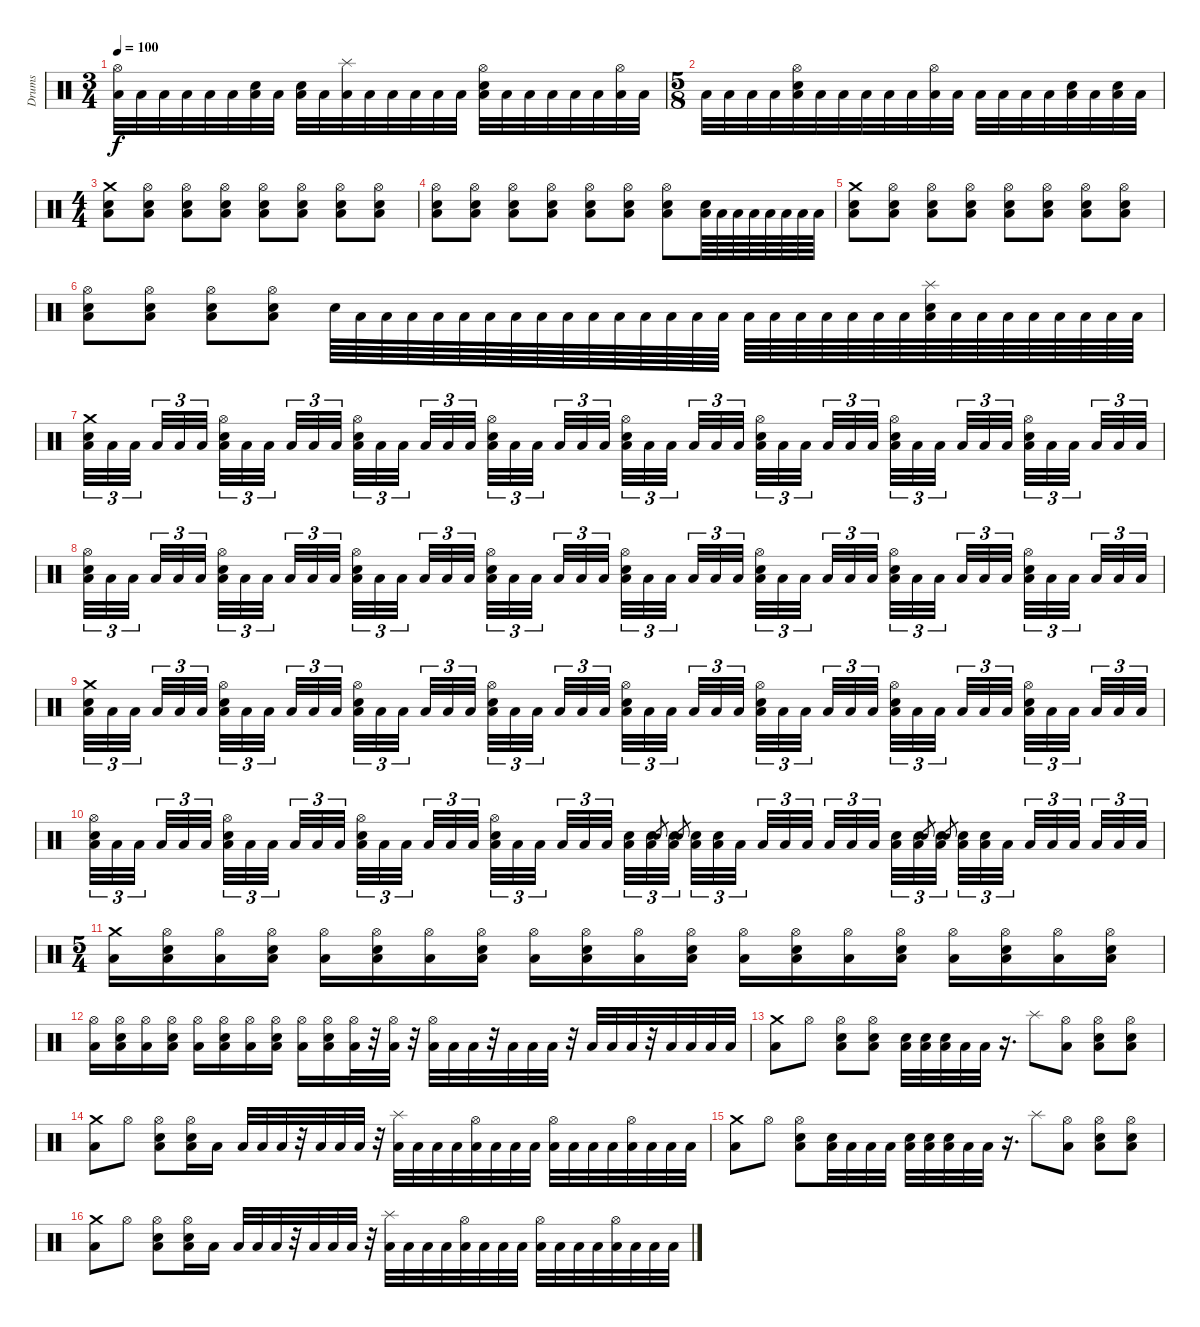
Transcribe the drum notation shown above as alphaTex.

\track ("Drums" "Drums") {instrument percussion}
\staff {score}
\articulation defaults
\ts (3 4)
\tempo 100
\clef neutral
\ks c
("Hi-Hat (open)" "Low Floor Tom (hit)").32{dy f} "Low Floor Tom (hit)".32 "Low Floor Tom (hit)".32 "Low Floor Tom (hit)".32 "Low Floor Tom (hit)".32 "Low Floor Tom (hit)".32 ("Electric Snare (hit)" "Low Floor Tom (hit)").32 "Low Floor Tom (hit)".32 ("Electric Snare (hit)" "Low Floor Tom (hit)").32 "Low Floor Tom (hit)".32 ("Splash (hit)" "Low Floor Tom (hit)").32 "Low Floor Tom (hit)".32 "Low Floor Tom (hit)".32 "Low Floor Tom (hit)".32 "Low Floor Tom (hit)".32 "Low Floor Tom (hit)".32 ("Hi-Hat (open)" "Electric Snare (hit)" "Low Floor Tom (hit)").32 "Low Floor Tom (hit)".32 "Low Floor Tom (hit)".32 "Low Floor Tom (hit)".32 "Low Floor Tom (hit)".32 "Low Floor Tom (hit)".32 ("Hi-Hat (open)" "Low Floor Tom (hit)").32 "Low Floor Tom (hit)".32 |
\ts (5 8)
"Low Floor Tom (hit)".32 "Low Floor Tom (hit)".32 "Low Floor Tom (hit)".32 "Low Floor Tom (hit)".32 ("Hi-Hat (open)" "Electric Snare (hit)" "Low Floor Tom (hit)").32 "Low Floor Tom (hit)".32 "Low Floor Tom (hit)".32 "Low Floor Tom (hit)".32 "Low Floor Tom (hit)".32 "Low Floor Tom (hit)".32 ("Hi-Hat (open)" "Low Floor Tom (hit)").32 "Low Floor Tom (hit)".32 "Low Floor Tom (hit)".32 "Low Floor Tom (hit)".32 "Low Floor Tom (hit)".32 "Low Floor Tom (hit)".32 ("Electric Snare (hit)" "Low Floor Tom (hit)").32 "Low Floor Tom (hit)".32 ("Electric Snare (hit)" "Low Floor Tom (hit)").32 "Low Floor Tom (hit)".32 |
\ts (4 4)
("Crash medium (hit)" "Electric Snare (hit)" "Low Floor Tom (hit)").8 ("Hi-Hat (open)" "Electric Snare (hit)" "Low Floor Tom (hit)").8 ("Hi-Hat (open)" "Electric Snare (hit)" "Low Floor Tom (hit)").8 ("Hi-Hat (open)" "Electric Snare (hit)" "Low Floor Tom (hit)").8 ("Hi-Hat (open)" "Electric Snare (hit)" "Low Floor Tom (hit)").8 ("Hi-Hat (open)" "Electric Snare (hit)" "Low Floor Tom (hit)").8 ("Hi-Hat (open)" "Electric Snare (hit)" "Low Floor Tom (hit)").8 ("Hi-Hat (open)" "Electric Snare (hit)" "Low Floor Tom (hit)").8 |
("Hi-Hat (open)" "Electric Snare (hit)" "Low Floor Tom (hit)").8 ("Hi-Hat (open)" "Electric Snare (hit)" "Low Floor Tom (hit)").8 ("Hi-Hat (open)" "Electric Snare (hit)" "Low Floor Tom (hit)").8 ("Hi-Hat (open)" "Electric Snare (hit)" "Low Floor Tom (hit)").8 ("Hi-Hat (open)" "Electric Snare (hit)" "Low Floor Tom (hit)").8 ("Hi-Hat (open)" "Electric Snare (hit)" "Low Floor Tom (hit)").8 ("Hi-Hat (open)" "Electric Snare (hit)" "Low Floor Tom (hit)").8 ("Electric Snare (hit)" "Low Floor Tom (hit)").64 "Low Floor Tom (hit)".64 "Low Floor Tom (hit)".64 "Low Floor Tom (hit)".64 "Low Floor Tom (hit)".64 "Low Floor Tom (hit)".64 "Low Floor Tom (hit)".64 "Low Floor Tom (hit)".64 |
("Crash medium (hit)" "Electric Snare (hit)" "Low Floor Tom (hit)").8 ("Hi-Hat (open)" "Electric Snare (hit)" "Low Floor Tom (hit)").8 ("Hi-Hat (open)" "Electric Snare (hit)" "Low Floor Tom (hit)").8 ("Hi-Hat (open)" "Electric Snare (hit)" "Low Floor Tom (hit)").8 ("Hi-Hat (open)" "Electric Snare (hit)" "Low Floor Tom (hit)").8 ("Hi-Hat (open)" "Electric Snare (hit)" "Low Floor Tom (hit)").8 ("Hi-Hat (open)" "Electric Snare (hit)" "Low Floor Tom (hit)").8 ("Hi-Hat (open)" "Electric Snare (hit)" "Low Floor Tom (hit)").8 |
("Hi-Hat (open)" "Electric Snare (hit)" "Low Floor Tom (hit)").8 ("Hi-Hat (open)" "Electric Snare (hit)" "Low Floor Tom (hit)").8 ("Hi-Hat (open)" "Electric Snare (hit)" "Low Floor Tom (hit)").8 ("Hi-Hat (open)" "Electric Snare (hit)" "Low Floor Tom (hit)").8 "Electric Snare (hit)".64 "Low Tom (hit)".64 "Low Tom (hit)".64 "Low Floor Tom (hit)".64 "Low Floor Tom (hit)".64 "Low Floor Tom (hit)".64 "Low Floor Tom (hit)".64 "Low Floor Tom (hit)".64 "Low Floor Tom (hit)".64 "Low Floor Tom (hit)".64 "Low Floor Tom (hit)".64 "Low Floor Tom (hit)".64 "Low Floor Tom (hit)".64 "Low Floor Tom (hit)".64 "Low Floor Tom (hit)".64 "Low Floor Tom (hit)".64 "Low Floor Tom (hit)".64 "Low Floor Tom (hit)".64 "Low Floor Tom (hit)".64 "Low Floor Tom (hit)".64 "Low Floor Tom (hit)".64 "Low Floor Tom (hit)".64 "Low Floor Tom (hit)".64 ("Splash (hit)" "Electric Snare (hit)" "Low Floor Tom (hit)").64 "Low Floor Tom (hit)".64 "Low Floor Tom (hit)".64 "Low Floor Tom (hit)".64 "Low Floor Tom (hit)".64 "Low Floor Tom (hit)".64 "Low Floor Tom (hit)".64 "Low Floor Tom (hit)".64 "Low Floor Tom (hit)".64 |
("Crash medium (hit)" "Electric Snare (hit)" "Low Floor Tom (hit)").32{tu (3 2)} "Low Floor Tom (hit)".32{tu (3 2)} "Low Floor Tom (hit)".32{tu (3 2) beam splitsecondary} "Low Floor Tom (hit)".32{tu (3 2)} "Low Floor Tom (hit)".32{tu (3 2)} "Low Floor Tom (hit)".32{tu (3 2) beam splitsecondary} ("Hi-Hat (open)" "Electric Snare (hit)" "Low Floor Tom (hit)").32{tu (3 2)} "Low Floor Tom (hit)".32{tu (3 2)} "Low Floor Tom (hit)".32{tu (3 2) beam splitsecondary} "Low Floor Tom (hit)".32{tu (3 2)} "Low Floor Tom (hit)".32{tu (3 2)} "Low Floor Tom (hit)".32{tu (3 2)} ("Hi-Hat (open)" "Electric Snare (hit)" "Low Floor Tom (hit)").32{tu (3 2)} "Low Floor Tom (hit)".32{tu (3 2)} "Low Floor Tom (hit)".32{tu (3 2) beam splitsecondary} "Low Floor Tom (hit)".32{tu (3 2)} "Low Floor Tom (hit)".32{tu (3 2)} "Low Floor Tom (hit)".32{tu (3 2) beam splitsecondary} ("Hi-Hat (open)" "Electric Snare (hit)" "Low Floor Tom (hit)").32{tu (3 2)} "Low Floor Tom (hit)".32{tu (3 2)} "Low Floor Tom (hit)".32{tu (3 2) beam splitsecondary} "Low Floor Tom (hit)".32{tu (3 2)} "Low Floor Tom (hit)".32{tu (3 2)} "Low Floor Tom (hit)".32{tu (3 2)} ("Hi-Hat (open)" "Electric Snare (hit)" "Low Floor Tom (hit)").32{tu (3 2)} "Low Floor Tom (hit)".32{tu (3 2)} "Low Floor Tom (hit)".32{tu (3 2) beam splitsecondary} "Low Floor Tom (hit)".32{tu (3 2)} "Low Floor Tom (hit)".32{tu (3 2)} "Low Floor Tom (hit)".32{tu (3 2) beam splitsecondary} ("Hi-Hat (open)" "Electric Snare (hit)" "Low Floor Tom (hit)").32{tu (3 2)} "Low Floor Tom (hit)".32{tu (3 2)} "Low Floor Tom (hit)".32{tu (3 2) beam splitsecondary} "Low Floor Tom (hit)".32{tu (3 2)} "Low Floor Tom (hit)".32{tu (3 2)} "Low Floor Tom (hit)".32{tu (3 2)} ("Hi-Hat (open)" "Electric Snare (hit)" "Low Floor Tom (hit)").32{tu (3 2)} "Low Floor Tom (hit)".32{tu (3 2)} "Low Floor Tom (hit)".32{tu (3 2) beam splitsecondary} "Low Floor Tom (hit)".32{tu (3 2)} "Low Floor Tom (hit)".32{tu (3 2)} "Low Floor Tom (hit)".32{tu (3 2) beam splitsecondary} ("Hi-Hat (open)" "Electric Snare (hit)" "Low Floor Tom (hit)").32{tu (3 2)} "Low Floor Tom (hit)".32{tu (3 2)} "Low Floor Tom (hit)".32{tu (3 2) beam splitsecondary} "Low Floor Tom (hit)".32{tu (3 2)} "Low Floor Tom (hit)".32{tu (3 2)} "Low Floor Tom (hit)".32{tu (3 2)} |
("Hi-Hat (open)" "Electric Snare (hit)" "Low Floor Tom (hit)").32{tu (3 2)} "Low Floor Tom (hit)".32{tu (3 2)} "Low Floor Tom (hit)".32{tu (3 2) beam splitsecondary} "Low Floor Tom (hit)".32{tu (3 2)} "Low Floor Tom (hit)".32{tu (3 2)} "Low Floor Tom (hit)".32{tu (3 2) beam splitsecondary} ("Hi-Hat (open)" "Electric Snare (hit)" "Low Floor Tom (hit)").32{tu (3 2)} "Low Floor Tom (hit)".32{tu (3 2)} "Low Floor Tom (hit)".32{tu (3 2) beam splitsecondary} "Low Floor Tom (hit)".32{tu (3 2)} "Low Floor Tom (hit)".32{tu (3 2)} "Low Floor Tom (hit)".32{tu (3 2)} ("Hi-Hat (open)" "Electric Snare (hit)" "Low Floor Tom (hit)").32{tu (3 2)} "Low Floor Tom (hit)".32{tu (3 2)} "Low Floor Tom (hit)".32{tu (3 2) beam splitsecondary} "Low Floor Tom (hit)".32{tu (3 2)} "Low Floor Tom (hit)".32{tu (3 2)} "Low Floor Tom (hit)".32{tu (3 2) beam splitsecondary} ("Hi-Hat (open)" "Electric Snare (hit)" "Low Floor Tom (hit)").32{tu (3 2)} "Low Floor Tom (hit)".32{tu (3 2)} "Low Floor Tom (hit)".32{tu (3 2) beam splitsecondary} "Low Floor Tom (hit)".32{tu (3 2)} "Low Floor Tom (hit)".32{tu (3 2)} "Low Floor Tom (hit)".32{tu (3 2)} ("Hi-Hat (open)" "Electric Snare (hit)" "Low Floor Tom (hit)").32{tu (3 2)} "Low Floor Tom (hit)".32{tu (3 2)} "Low Floor Tom (hit)".32{tu (3 2) beam splitsecondary} "Low Floor Tom (hit)".32{tu (3 2)} "Low Floor Tom (hit)".32{tu (3 2)} "Low Floor Tom (hit)".32{tu (3 2) beam splitsecondary} ("Hi-Hat (open)" "Electric Snare (hit)" "Low Floor Tom (hit)").32{tu (3 2)} "Low Floor Tom (hit)".32{tu (3 2)} "Low Floor Tom (hit)".32{tu (3 2) beam splitsecondary} "Low Floor Tom (hit)".32{tu (3 2)} "Low Floor Tom (hit)".32{tu (3 2)} "Low Floor Tom (hit)".32{tu (3 2)} ("Hi-Hat (open)" "Electric Snare (hit)" "Low Floor Tom (hit)").32{tu (3 2)} "Low Floor Tom (hit)".32{tu (3 2)} "Low Floor Tom (hit)".32{tu (3 2) beam splitsecondary} "Low Floor Tom (hit)".32{tu (3 2)} "Low Floor Tom (hit)".32{tu (3 2)} "Low Floor Tom (hit)".32{tu (3 2) beam splitsecondary} ("Hi-Hat (open)" "Electric Snare (hit)" "Low Floor Tom (hit)").32{tu (3 2)} "Low Floor Tom (hit)".32{tu (3 2)} "Low Floor Tom (hit)".32{tu (3 2) beam splitsecondary} "Low Floor Tom (hit)".32{tu (3 2)} "Low Floor Tom (hit)".32{tu (3 2)} "Low Floor Tom (hit)".32{tu (3 2)} |
("Crash medium (hit)" "Electric Snare (hit)" "Low Floor Tom (hit)").32{tu (3 2)} "Low Floor Tom (hit)".32{tu (3 2)} "Low Floor Tom (hit)".32{tu (3 2) beam splitsecondary} "Low Floor Tom (hit)".32{tu (3 2)} "Low Floor Tom (hit)".32{tu (3 2)} "Low Floor Tom (hit)".32{tu (3 2) beam splitsecondary} ("Hi-Hat (open)" "Electric Snare (hit)" "Low Floor Tom (hit)").32{tu (3 2)} "Low Floor Tom (hit)".32{tu (3 2)} "Low Floor Tom (hit)".32{tu (3 2) beam splitsecondary} "Low Floor Tom (hit)".32{tu (3 2)} "Low Floor Tom (hit)".32{tu (3 2)} "Low Floor Tom (hit)".32{tu (3 2)} ("Hi-Hat (open)" "Electric Snare (hit)" "Low Floor Tom (hit)").32{tu (3 2)} "Low Floor Tom (hit)".32{tu (3 2)} "Low Floor Tom (hit)".32{tu (3 2) beam splitsecondary} "Low Floor Tom (hit)".32{tu (3 2)} "Low Floor Tom (hit)".32{tu (3 2)} "Low Floor Tom (hit)".32{tu (3 2) beam splitsecondary} ("Hi-Hat (open)" "Electric Snare (hit)" "Low Floor Tom (hit)").32{tu (3 2)} "Low Floor Tom (hit)".32{tu (3 2)} "Low Floor Tom (hit)".32{tu (3 2) beam splitsecondary} "Low Floor Tom (hit)".32{tu (3 2)} "Low Floor Tom (hit)".32{tu (3 2)} "Low Floor Tom (hit)".32{tu (3 2)} ("Hi-Hat (open)" "Electric Snare (hit)" "Low Floor Tom (hit)").32{tu (3 2)} "Low Floor Tom (hit)".32{tu (3 2)} "Low Floor Tom (hit)".32{tu (3 2) beam splitsecondary} "Low Floor Tom (hit)".32{tu (3 2)} "Low Floor Tom (hit)".32{tu (3 2)} "Low Floor Tom (hit)".32{tu (3 2) beam splitsecondary} ("Hi-Hat (open)" "Electric Snare (hit)" "Low Floor Tom (hit)").32{tu (3 2)} "Low Floor Tom (hit)".32{tu (3 2)} "Low Floor Tom (hit)".32{tu (3 2) beam splitsecondary} "Low Floor Tom (hit)".32{tu (3 2)} "Low Floor Tom (hit)".32{tu (3 2)} "Low Floor Tom (hit)".32{tu (3 2)} ("Hi-Hat (open)" "Electric Snare (hit)" "Low Floor Tom (hit)").32{tu (3 2)} "Low Floor Tom (hit)".32{tu (3 2)} "Low Floor Tom (hit)".32{tu (3 2) beam splitsecondary} "Low Floor Tom (hit)".32{tu (3 2)} "Low Floor Tom (hit)".32{tu (3 2)} "Low Floor Tom (hit)".32{tu (3 2) beam splitsecondary} ("Hi-Hat (open)" "Electric Snare (hit)" "Low Floor Tom (hit)").32{tu (3 2)} "Low Floor Tom (hit)".32{tu (3 2)} "Low Floor Tom (hit)".32{tu (3 2) beam splitsecondary} "Low Floor Tom (hit)".32{tu (3 2)} "Low Floor Tom (hit)".32{tu (3 2)} "Low Floor Tom (hit)".32{tu (3 2)} |
("Hi-Hat (open)" "Electric Snare (hit)" "Low Floor Tom (hit)").32{tu (3 2)} "Low Floor Tom (hit)".32{tu (3 2)} "Low Floor Tom (hit)".32{tu (3 2) beam splitsecondary} "Low Floor Tom (hit)".32{tu (3 2)} "Low Floor Tom (hit)".32{tu (3 2)} "Low Floor Tom (hit)".32{tu (3 2) beam splitsecondary} ("Hi-Hat (open)" "Electric Snare (hit)" "Low Floor Tom (hit)").32{tu (3 2)} "Low Floor Tom (hit)".32{tu (3 2)} "Low Floor Tom (hit)".32{tu (3 2) beam splitsecondary} "Low Floor Tom (hit)".32{tu (3 2)} "Low Floor Tom (hit)".32{tu (3 2)} "Low Floor Tom (hit)".32{tu (3 2)} ("Hi-Hat (open)" "Electric Snare (hit)" "Low Floor Tom (hit)").32{tu (3 2)} "Low Floor Tom (hit)".32{tu (3 2)} "Low Floor Tom (hit)".32{tu (3 2) beam splitsecondary} "Low Floor Tom (hit)".32{tu (3 2)} "Low Floor Tom (hit)".32{tu (3 2)} "Low Floor Tom (hit)".32{tu (3 2) beam splitsecondary} ("Hi-Hat (open)" "Electric Snare (hit)" "Low Floor Tom (hit)").32{tu (3 2)} "Low Floor Tom (hit)".32{tu (3 2)} "Low Floor Tom (hit)".32{tu (3 2) beam splitsecondary} "Low Floor Tom (hit)".32{tu (3 2)} "Low Floor Tom (hit)".32{tu (3 2)} "Low Floor Tom (hit)".32{tu (3 2)} ("Electric Snare (hit)" "Low Floor Tom (hit)").32{tu (3 2)} ("Electric Snare (hit)" "Low Floor Tom (hit)").32{tu (3 2)} "Electric Snare (hit)".8{gr} ("Electric Snare (hit)" "Low Floor Tom (hit)").32{tu (3 2)} "Electric Snare (hit)".8{gr beam splitsecondary} ("Electric Snare (hit)" "Low Floor Tom (hit)").32{tu (3 2)} ("Electric Snare (hit)" "Low Floor Tom (hit)").32{tu (3 2)} "Low Floor Tom (hit)".32{tu (3 2) beam splitsecondary} "Low Floor Tom (hit)".32{tu (3 2)} "Low Floor Tom (hit)".32{tu (3 2)} "Low Floor Tom (hit)".32{tu (3 2) beam splitsecondary} "Low Floor Tom (hit)".32{tu (3 2)} "Low Floor Tom (hit)".32{tu (3 2)} "Low Floor Tom (hit)".32{tu (3 2)} ("Electric Snare (hit)" "Low Floor Tom (hit)").32{tu (3 2)} ("Electric Snare (hit)" "Low Floor Tom (hit)").32{tu (3 2)} "Electric Snare (hit)".8{gr} ("Electric Snare (hit)" "Low Floor Tom (hit)").32{tu (3 2)} "Electric Snare (hit)".8{gr beam splitsecondary} ("Electric Snare (hit)" "Low Floor Tom (hit)").32{tu (3 2)} ("Electric Snare (hit)" "Low Floor Tom (hit)").32{tu (3 2)} "Low Floor Tom (hit)".32{tu (3 2) beam splitsecondary} "Low Floor Tom (hit)".32{tu (3 2)} "Low Floor Tom (hit)".32{tu (3 2)} "Low Floor Tom (hit)".32{tu (3 2) beam splitsecondary} "Low Floor Tom (hit)".32{tu (3 2)} "Low Floor Tom (hit)".32{tu (3 2)} "Low Floor Tom (hit)".32{tu (3 2)} |
\ts (5 4)
("Crash medium (hit)" "Low Floor Tom (hit)").16 ("Hi-Hat (open)" "Electric Snare (hit)" "Low Floor Tom (hit)").16 ("Hi-Hat (open)" "Low Floor Tom (hit)").16 ("Hi-Hat (open)" "Electric Snare (hit)" "Low Floor Tom (hit)").16 ("Hi-Hat (open)" "Low Floor Tom (hit)").16 ("Hi-Hat (open)" "Electric Snare (hit)" "Low Floor Tom (hit)").16 ("Hi-Hat (open)" "Low Floor Tom (hit)").16 ("Hi-Hat (open)" "Electric Snare (hit)" "Low Floor Tom (hit)").16 ("Hi-Hat (open)" "Low Floor Tom (hit)").16 ("Hi-Hat (open)" "Electric Snare (hit)" "Low Floor Tom (hit)").16 ("Hi-Hat (open)" "Low Floor Tom (hit)").16 ("Hi-Hat (open)" "Electric Snare (hit)" "Low Floor Tom (hit)").16 ("Hi-Hat (open)" "Low Floor Tom (hit)").16 ("Hi-Hat (open)" "Electric Snare (hit)" "Low Floor Tom (hit)").16 ("Hi-Hat (open)" "Low Floor Tom (hit)").16 ("Hi-Hat (open)" "Electric Snare (hit)" "Low Floor Tom (hit)").16 ("Hi-Hat (open)" "Low Floor Tom (hit)").16 ("Hi-Hat (open)" "Electric Snare (hit)" "Low Floor Tom (hit)").16 ("Hi-Hat (open)" "Low Floor Tom (hit)").16 ("Hi-Hat (open)" "Electric Snare (hit)" "Low Floor Tom (hit)").16 |
("Hi-Hat (open)" "Low Floor Tom (hit)").16 ("Hi-Hat (open)" "Electric Snare (hit)" "Low Floor Tom (hit)").16 ("Hi-Hat (open)" "Low Floor Tom (hit)").16 ("Hi-Hat (open)" "Electric Snare (hit)" "Low Floor Tom (hit)").16 ("Hi-Hat (open)" "Low Floor Tom (hit)").16 ("Hi-Hat (open)" "Electric Snare (hit)" "Low Floor Tom (hit)").16 ("Hi-Hat (open)" "Low Floor Tom (hit)").16 ("Hi-Hat (open)" "Electric Snare (hit)" "Low Floor Tom (hit)").16 ("Hi-Hat (open)" "Low Floor Tom (hit)").16 ("Hi-Hat (open)" "Electric Snare (hit)" "Low Floor Tom (hit)").16 ("Hi-Hat (open)" "Low Floor Tom (hit)").32 r.32 ("Hi-Hat (open)" "Low Floor Tom (hit)").32 r.32 ("Hi-Hat (open)" "Low Tom (hit)").32 "Low Tom (hit)".32 "Low Tom (hit)".32 r.32 "Low Tom (hit)".32 "Low Tom (hit)".32 "Low Tom (hit)".32 r.32 "Low Tom (hit)".32 "Low Tom (hit)".32 "Low Tom (hit)".32 r.32 "Low Tom (hit)".32 "Low Tom (hit)".32 "Low Tom (hit)".32 "Low Tom (hit)".32 |
("Crash medium (hit)" "Low Floor Tom (hit)").8 "Hi-Hat (open)".8 ("Hi-Hat (open)" "Electric Snare (hit)" "Low Floor Tom (hit)").8 ("Hi-Hat (open)" "Electric Snare (hit)" "Low Floor Tom (hit)").8 ("Electric Snare (hit)" "Low Floor Tom (hit)").32 ("Electric Snare (hit)" "Low Floor Tom (hit)").32 ("Electric Snare (hit)" "Low Floor Tom (hit)").32 "Low Floor Tom (hit)".32 "Low Floor Tom (hit)".32 r.16{d} "Splash (hit)".8 ("Hi-Hat (open)" "Low Floor Tom (hit)").8 ("Hi-Hat (open)" "Electric Snare (hit)" "Low Floor Tom (hit)").8 ("Hi-Hat (open)" "Electric Snare (hit)" "Low Floor Tom (hit)").8 |
("Crash medium (hit)" "Low Floor Tom (hit)").8 "Hi-Hat (open)".8 ("Hi-Hat (open)" "Electric Snare (hit)" "Low Floor Tom (hit)").8 ("Hi-Hat (open)" "Electric Snare (hit)" "Low Floor Tom (hit)").16 "Low Floor Tom (hit)".16 "Low Floor Tom (hit)".32 "Low Floor Tom (hit)".32 "Low Floor Tom (hit)".32 r.32 "Low Floor Tom (hit)".32 "Low Floor Tom (hit)".32 "Low Floor Tom (hit)".32 r.32 ("Splash (hit)" "Low Floor Tom (hit)").32 "Low Floor Tom (hit)".32 "Low Floor Tom (hit)".32 "Low Floor Tom (hit)".32 ("Hi-Hat (open)" "Low Floor Tom (hit)").32 "Low Floor Tom (hit)".32 "Low Floor Tom (hit)".32 "Low Floor Tom (hit)".32 ("Hi-Hat (open)" "Low Floor Tom (hit)").32 "Low Floor Tom (hit)".32 "Low Floor Tom (hit)".32 "Low Floor Tom (hit)".32 ("Hi-Hat (open)" "Low Floor Tom (hit)").32 "Low Floor Tom (hit)".32 "Low Floor Tom (hit)".32 "Low Floor Tom (hit)".32 |
("Crash medium (hit)" "Low Floor Tom (hit)").8 "Hi-Hat (open)".8 ("Hi-Hat (open)" "Electric Snare (hit)" "Low Floor Tom (hit)").8 ("Electric Snare (hit)" "Low Floor Tom (hit)").32 "Low Floor Tom (hit)".32 "Low Floor Tom (hit)".32 "Low Floor Tom (hit)".32 ("Electric Snare (hit)" "Low Floor Tom (hit)").32 ("Electric Snare (hit)" "Low Floor Tom (hit)").32 ("Electric Snare (hit)" "Low Floor Tom (hit)").32 "Low Floor Tom (hit)".32 "Low Floor Tom (hit)".32 r.16{d} "Splash (hit)".8 ("Hi-Hat (open)" "Low Floor Tom (hit)").8 ("Hi-Hat (open)" "Electric Snare (hit)" "Low Floor Tom (hit)").8 ("Hi-Hat (open)" "Electric Snare (hit)" "Low Floor Tom (hit)").8 |
("Crash medium (hit)" "Low Floor Tom (hit)").8 "Hi-Hat (open)".8 ("Hi-Hat (open)" "Electric Snare (hit)" "Low Floor Tom (hit)").8 ("Hi-Hat (open)" "Electric Snare (hit)" "Low Floor Tom (hit)").16 "Low Floor Tom (hit)".16 "Low Floor Tom (hit)".32 "Low Floor Tom (hit)".32 "Low Floor Tom (hit)".32 r.32 "Low Floor Tom (hit)".32 "Low Floor Tom (hit)".32 "Low Floor Tom (hit)".32 r.32 ("Splash (hit)" "Low Floor Tom (hit)").32 "Low Floor Tom (hit)".32 "Low Floor Tom (hit)".32 "Low Floor Tom (hit)".32 ("Hi-Hat (open)" "Low Floor Tom (hit)").32 "Low Floor Tom (hit)".32 "Low Floor Tom (hit)".32 "Low Floor Tom (hit)".32 ("Hi-Hat (open)" "Low Floor Tom (hit)").32 "Low Floor Tom (hit)".32 "Low Floor Tom (hit)".32 "Low Floor Tom (hit)".32 ("Hi-Hat (open)" "Low Floor Tom (hit)").32 "Low Floor Tom (hit)".32 "Low Floor Tom (hit)".32 "Low Floor Tom (hit)".32
